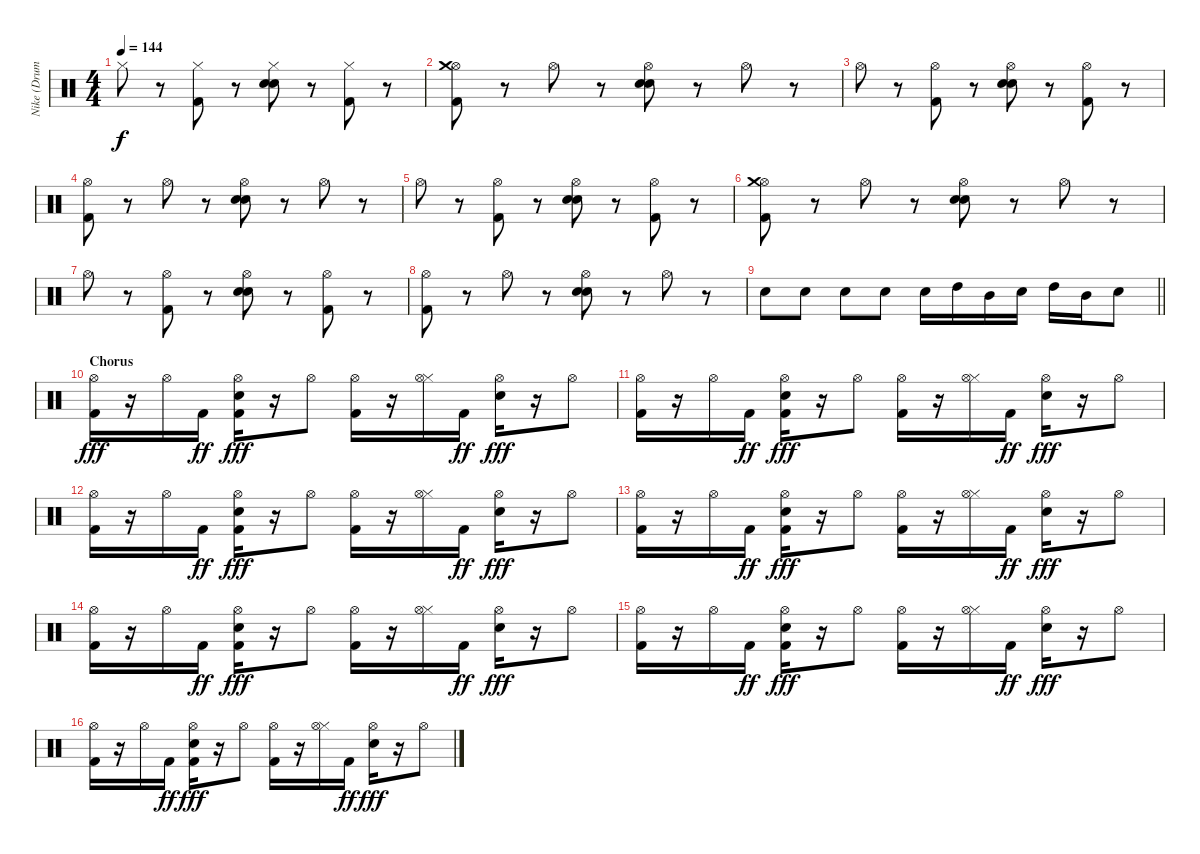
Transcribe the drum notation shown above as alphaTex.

\track ("Nike (Drums)" "Nike (Drum") {instrument percussion}
\staff {score}
\articulation defaults
\ts (4 4)
\tempo 144
\clef neutral
\ks c "Hi-Hat (closed)".8{dy f}
r.8 ("Hi-Hat (closed)" "Kick (hit) 2").8 r.8 ("Electric Snare (hit)" "Hi-Hat (closed)" "Electric Snare (hit)").8 r.8 ("Hi-Hat (closed)" "Kick (hit) 2").8 r.8 |
("Kick (hit) 2" "Hi-Hat (open)" "Crash medium (hit)").8 r.8 "Hi-Hat (open)".8 r.8 ("Electric Snare (hit)" "Hi-Hat (open)" "Electric Snare (hit)").8 r.8 "Hi-Hat (open)".8 r.8 |
"Hi-Hat (open)".8 r.8 ("Hi-Hat (open)" "Kick (hit) 2").8 r.8 ("Electric Snare (hit)" "Hi-Hat (open)" "Electric Snare (hit)").8 r.8 ("Hi-Hat (open)" "Kick (hit) 2").8 r.8 |
("Kick (hit) 2" "Hi-Hat (open)").8 r.8 "Hi-Hat (open)".8 r.8 ("Electric Snare (hit)" "Hi-Hat (open)" "Electric Snare (hit)").8 r.8 "Hi-Hat (open)".8 r.8 |
"Hi-Hat (open)".8 r.8 ("Hi-Hat (open)" "Kick (hit) 2").8 r.8 ("Electric Snare (hit)" "Hi-Hat (open)" "Electric Snare (hit)").8 r.8 ("Hi-Hat (open)" "Kick (hit) 2").8 r.8 |
("Kick (hit) 2" "Hi-Hat (open)" "Crash medium (hit)").8 r.8 "Hi-Hat (open)".8 r.8 ("Electric Snare (hit)" "Hi-Hat (open)" "Electric Snare (hit)").8 r.8 "Hi-Hat (open)".8 r.8 |
"Hi-Hat (open)".8 r.8 ("Hi-Hat (open)" "Kick (hit) 2").8 r.8 ("Electric Snare (hit)" "Hi-Hat (open)" "Electric Snare (hit)").8 r.8 ("Hi-Hat (open)" "Kick (hit) 2").8 r.8 |
("Kick (hit) 2" "Hi-Hat (open)").8 r.8 "Hi-Hat (open)".8 r.8 ("Electric Snare (hit)" "Hi-Hat (open)" "Electric Snare (hit)").8 r.8 "Hi-Hat (open)".8 r.8 |
\barLineRight lightlight "Electric Snare (hit)".8 "Electric Snare (hit)".8 "Electric Snare (hit)".8 "Electric Snare (hit)".8 "Electric Snare (hit)".16 "High Tom (hit)".16 "Mid Tom (hit)".16 "Electric Snare (hit)".16 "High Tom (hit)".16 "Mid Tom (hit)".16 "Electric Snare (hit)".8
|
\section ("" "Chorus")
("Kick (hit) 2" "Hi-Hat (open)").16{dy fff} r.16 "Hi-Hat (open)".16 "Kick (hit) 2".16{dy ff} ("Kick (hit) 2" "Electric Snare (hit)" "Hi-Hat (open)").16{dy fff} r.16 "Hi-Hat (open)".8 ("Kick (hit) 2" "Hi-Hat (open)").16 r.16 ("Hi-Hat (closed)" "Hi-Hat (open)").16 "Kick (hit) 2".16{dy ff} ("Electric Snare (hit)" "Hi-Hat (open)").16{dy fff} r.16 "Hi-Hat (open)".8 |
("Kick (hit) 2" "Hi-Hat (open)").16 r.16 "Hi-Hat (open)".16 "Kick (hit) 2".16{dy ff} ("Kick (hit) 2" "Electric Snare (hit)" "Hi-Hat (open)").16{dy fff} r.16 "Hi-Hat (open)".8 ("Kick (hit) 2" "Hi-Hat (open)").16 r.16 ("Hi-Hat (closed)" "Hi-Hat (open)").16 "Kick (hit) 2".16{dy ff} ("Electric Snare (hit)" "Hi-Hat (open)").16{dy fff} r.16 "Hi-Hat (open)".8 |
("Kick (hit) 2" "Hi-Hat (open)").16 r.16 "Hi-Hat (open)".16 "Kick (hit) 2".16{dy ff} ("Kick (hit) 2" "Electric Snare (hit)" "Hi-Hat (open)").16{dy fff} r.16 "Hi-Hat (open)".8 ("Kick (hit) 2" "Hi-Hat (open)").16 r.16 ("Hi-Hat (closed)" "Hi-Hat (open)").16 "Kick (hit) 2".16{dy ff} ("Electric Snare (hit)" "Hi-Hat (open)").16{dy fff} r.16 "Hi-Hat (open)".8 |
("Kick (hit) 2" "Hi-Hat (open)").16 r.16 "Hi-Hat (open)".16 "Kick (hit) 2".16{dy ff} ("Kick (hit) 2" "Electric Snare (hit)" "Hi-Hat (open)").16{dy fff} r.16 "Hi-Hat (open)".8 ("Kick (hit) 2" "Hi-Hat (open)").16 r.16 ("Hi-Hat (closed)" "Hi-Hat (open)").16 "Kick (hit) 2".16{dy ff} ("Electric Snare (hit)" "Hi-Hat (open)").16{dy fff} r.16 "Hi-Hat (open)".8 |
("Kick (hit) 2" "Hi-Hat (open)").16 r.16 "Hi-Hat (open)".16 "Kick (hit) 2".16{dy ff} ("Kick (hit) 2" "Electric Snare (hit)" "Hi-Hat (open)").16{dy fff} r.16 "Hi-Hat (open)".8 ("Kick (hit) 2" "Hi-Hat (open)").16 r.16 ("Hi-Hat (closed)" "Hi-Hat (open)").16 "Kick (hit) 2".16{dy ff} ("Electric Snare (hit)" "Hi-Hat (open)").16{dy fff} r.16 "Hi-Hat (open)".8 |
("Kick (hit) 2" "Hi-Hat (open)").16 r.16 "Hi-Hat (open)".16 "Kick (hit) 2".16{dy ff} ("Kick (hit) 2" "Electric Snare (hit)" "Hi-Hat (open)").16{dy fff} r.16 "Hi-Hat (open)".8 ("Kick (hit) 2" "Hi-Hat (open)").16 r.16 ("Hi-Hat (closed)" "Hi-Hat (open)").16 "Kick (hit) 2".16{dy ff} ("Electric Snare (hit)" "Hi-Hat (open)").16{dy fff} r.16 "Hi-Hat (open)".8 |
("Kick (hit) 2" "Hi-Hat (open)").16 r.16 "Hi-Hat (open)".16 "Kick (hit) 2".16{dy ff} ("Kick (hit) 2" "Electric Snare (hit)" "Hi-Hat (open)").16{dy fff} r.16 "Hi-Hat (open)".8 ("Kick (hit) 2" "Hi-Hat (open)").16 r.16 ("Hi-Hat (closed)" "Hi-Hat (open)").16 "Kick (hit) 2".16{dy ff} ("Electric Snare (hit)" "Hi-Hat (open)").16{dy fff} r.16 "Hi-Hat (open)".8
